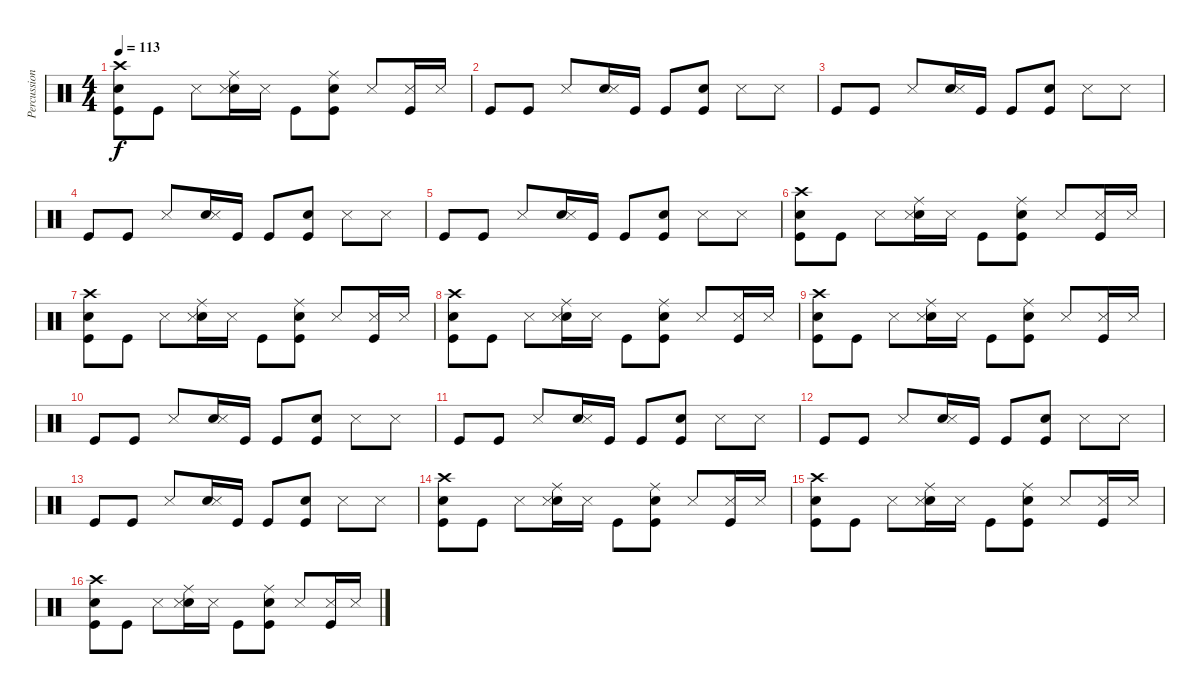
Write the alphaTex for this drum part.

\track ("Percussion" "Percussion") {instrument percussion}
\staff {score}
\articulation defaults
\ts (4 4)
\tempo 113
\clef neutral
\ks c
("Crash high (hit)" "Electric Snare (hit)" "Kick (hit)").8{dy f} "Kick (hit)".8 "Snare (side stick) 3".8 ("Ride (middle)" "Electric Snare (hit)" "Snare (side stick) 3").16 "Snare (side stick) 3".16 "Kick (hit)".8 ("Ride (middle)" "Electric Snare (hit)" "Kick (hit)").8 "Snare (side stick) 3".8 ("Snare (side stick) 3" "Kick (hit)").16 "Snare (side stick) 3".16 |
"Kick (hit)".8 "Kick (hit)".8 "Snare (side stick) 3".8 ("Electric Snare (hit)" "Snare (side stick) 3").16 "Kick (hit)".16 "Kick (hit)".8 ("Electric Snare (hit)" "Kick (hit)").8 "Snare (side stick) 3".8 "Snare (side stick) 3".8 |
"Kick (hit)".8 "Kick (hit)".8 "Snare (side stick) 3".8 ("Electric Snare (hit)" "Snare (side stick) 3").16 "Kick (hit)".16 "Kick (hit)".8 ("Electric Snare (hit)" "Kick (hit)").8 "Snare (side stick) 3".8 "Snare (side stick) 3".8 |
"Kick (hit)".8 "Kick (hit)".8 "Snare (side stick) 3".8 ("Electric Snare (hit)" "Snare (side stick) 3").16 "Kick (hit)".16 "Kick (hit)".8 ("Electric Snare (hit)" "Kick (hit)").8 "Snare (side stick) 3".8 "Snare (side stick) 3".8 |
"Kick (hit)".8 "Kick (hit)".8 "Snare (side stick) 3".8 ("Electric Snare (hit)" "Snare (side stick) 3").16 "Kick (hit)".16 "Kick (hit)".8 ("Electric Snare (hit)" "Kick (hit)").8 "Snare (side stick) 3".8 "Snare (side stick) 3".8 |
("Crash high (hit)" "Electric Snare (hit)" "Kick (hit)").8 "Kick (hit)".8 "Snare (side stick) 3".8 ("Ride (middle)" "Electric Snare (hit)" "Snare (side stick) 3").16 "Snare (side stick) 3".16 "Kick (hit)".8 ("Ride (middle)" "Electric Snare (hit)" "Kick (hit)").8 "Snare (side stick) 3".8 ("Snare (side stick) 3" "Kick (hit)").16 "Snare (side stick) 3".16 |
("Crash high (hit)" "Electric Snare (hit)" "Kick (hit)").8 "Kick (hit)".8 "Snare (side stick) 3".8 ("Ride (middle)" "Electric Snare (hit)" "Snare (side stick) 3").16 "Snare (side stick) 3".16 "Kick (hit)".8 ("Ride (middle)" "Electric Snare (hit)" "Kick (hit)").8 "Snare (side stick) 3".8 ("Snare (side stick) 3" "Kick (hit)").16 "Snare (side stick) 3".16 |
("Crash high (hit)" "Electric Snare (hit)" "Kick (hit)").8 "Kick (hit)".8 "Snare (side stick) 3".8 ("Ride (middle)" "Electric Snare (hit)" "Snare (side stick) 3").16 "Snare (side stick) 3".16 "Kick (hit)".8 ("Ride (middle)" "Electric Snare (hit)" "Kick (hit)").8 "Snare (side stick) 3".8 ("Snare (side stick) 3" "Kick (hit)").16 "Snare (side stick) 3".16 |
("Crash high (hit)" "Electric Snare (hit)" "Kick (hit)").8 "Kick (hit)".8 "Snare (side stick) 3".8 ("Ride (middle)" "Electric Snare (hit)" "Snare (side stick) 3").16 "Snare (side stick) 3".16 "Kick (hit)".8 ("Ride (middle)" "Electric Snare (hit)" "Kick (hit)").8 "Snare (side stick) 3".8 ("Snare (side stick) 3" "Kick (hit)").16 "Snare (side stick) 3".16 |
"Kick (hit)".8 "Kick (hit)".8 "Snare (side stick) 3".8 ("Electric Snare (hit)" "Snare (side stick) 3").16 "Kick (hit)".16 "Kick (hit)".8 ("Electric Snare (hit)" "Kick (hit)").8 "Snare (side stick) 3".8 "Snare (side stick) 3".8 |
"Kick (hit)".8 "Kick (hit)".8 "Snare (side stick) 3".8 ("Electric Snare (hit)" "Snare (side stick) 3").16 "Kick (hit)".16 "Kick (hit)".8 ("Electric Snare (hit)" "Kick (hit)").8 "Snare (side stick) 3".8 "Snare (side stick) 3".8 |
"Kick (hit)".8 "Kick (hit)".8 "Snare (side stick) 3".8 ("Electric Snare (hit)" "Snare (side stick) 3").16 "Kick (hit)".16 "Kick (hit)".8 ("Electric Snare (hit)" "Kick (hit)").8 "Snare (side stick) 3".8 "Snare (side stick) 3".8 |
"Kick (hit)".8 "Kick (hit)".8 "Snare (side stick) 3".8 ("Electric Snare (hit)" "Snare (side stick) 3").16 "Kick (hit)".16 "Kick (hit)".8 ("Electric Snare (hit)" "Kick (hit)").8 "Snare (side stick) 3".8 "Snare (side stick) 3".8 |
("Crash high (hit)" "Electric Snare (hit)" "Kick (hit)").8 "Kick (hit)".8 "Snare (side stick) 3".8 ("Ride (middle)" "Electric Snare (hit)" "Snare (side stick) 3").16 "Snare (side stick) 3".16 "Kick (hit)".8 ("Ride (middle)" "Electric Snare (hit)" "Kick (hit)").8 "Snare (side stick) 3".8 ("Snare (side stick) 3" "Kick (hit)").16 "Snare (side stick) 3".16 |
("Crash high (hit)" "Electric Snare (hit)" "Kick (hit)").8 "Kick (hit)".8 "Snare (side stick) 3".8 ("Ride (middle)" "Electric Snare (hit)" "Snare (side stick) 3").16 "Snare (side stick) 3".16 "Kick (hit)".8 ("Ride (middle)" "Electric Snare (hit)" "Kick (hit)").8 "Snare (side stick) 3".8 ("Snare (side stick) 3" "Kick (hit)").16 "Snare (side stick) 3".16 |
("Crash high (hit)" "Electric Snare (hit)" "Kick (hit)").8 "Kick (hit)".8 "Snare (side stick) 3".8 ("Ride (middle)" "Electric Snare (hit)" "Snare (side stick) 3").16 "Snare (side stick) 3".16 "Kick (hit)".8 ("Ride (middle)" "Electric Snare (hit)" "Kick (hit)").8 "Snare (side stick) 3".8 ("Snare (side stick) 3" "Kick (hit)").16 "Snare (side stick) 3".16
